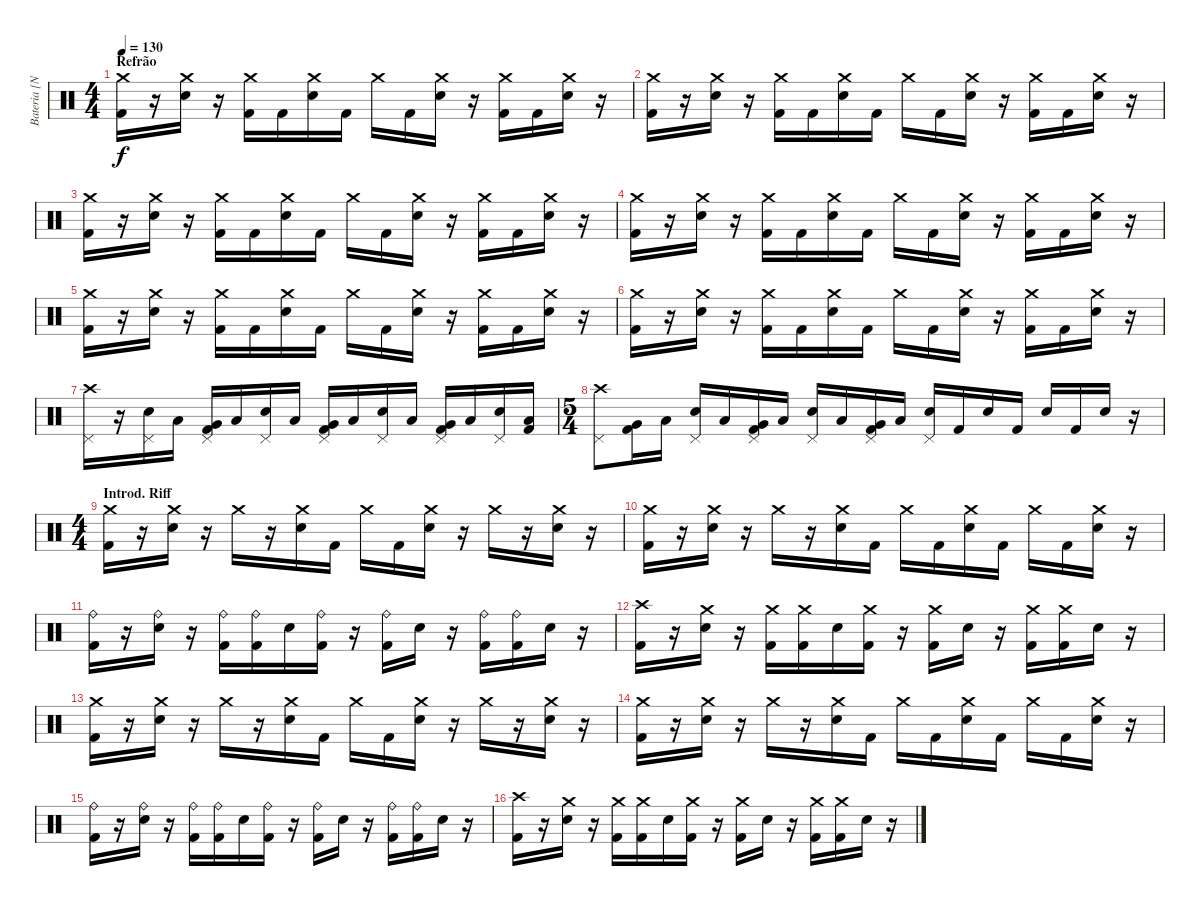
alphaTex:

\track ("Bateria [Nô]" "Bateria [N") {instrument percussion}
\staff {score}
\articulation defaults
\ts (4 4)
\section ("" "Refrão")
\tempo 130
\clef neutral
\ks c
("Crash medium (hit)" "Kick (hit) 2").16{dy f} r.16 ("Crash medium (hit)" "Snare (hit) 2").16 r.16 ("Crash medium (hit)" "Kick (hit) 2").16 "Kick (hit) 2".16 ("Crash medium (hit)" "Snare (hit) 2").16 "Kick (hit) 2".16 "Crash medium (hit)".16 "Kick (hit) 2".16 ("Crash medium (hit)" "Snare (hit) 2").16 r.16 ("Crash medium (hit)" "Kick (hit) 2").16 "Kick (hit) 2".16 ("Crash medium (hit)" "Snare (hit) 2").16 r.16 |
("Crash medium (hit)" "Kick (hit) 2").16 r.16 ("Crash medium (hit)" "Snare (hit) 2").16 r.16 ("Crash medium (hit)" "Kick (hit) 2").16 "Kick (hit) 2".16 ("Crash medium (hit)" "Snare (hit) 2").16 "Kick (hit) 2".16 "Crash medium (hit)".16 "Kick (hit) 2".16 ("Crash medium (hit)" "Snare (hit) 2").16 r.16 ("Crash medium (hit)" "Kick (hit) 2").16 "Kick (hit) 2".16 ("Crash medium (hit)" "Snare (hit) 2").16 r.16 |
("Crash medium (hit)" "Kick (hit) 2").16 r.16 ("Crash medium (hit)" "Snare (hit) 2").16 r.16 ("Crash medium (hit)" "Kick (hit) 2").16 "Kick (hit) 2".16 ("Crash medium (hit)" "Snare (hit) 2").16 "Kick (hit) 2".16 "Crash medium (hit)".16 "Kick (hit) 2".16 ("Crash medium (hit)" "Snare (hit) 2").16 r.16 ("Crash medium (hit)" "Kick (hit) 2").16 "Kick (hit) 2".16 ("Crash medium (hit)" "Snare (hit) 2").16 r.16 |
("Crash medium (hit)" "Kick (hit) 2").16 r.16 ("Crash medium (hit)" "Snare (hit) 2").16 r.16 ("Crash medium (hit)" "Kick (hit) 2").16 "Kick (hit) 2".16 ("Crash medium (hit)" "Snare (hit) 2").16 "Kick (hit) 2".16 "Crash medium (hit)".16 "Kick (hit) 2".16 ("Crash medium (hit)" "Snare (hit) 2").16 r.16 ("Crash medium (hit)" "Kick (hit) 2").16 "Kick (hit) 2".16 ("Crash medium (hit)" "Snare (hit) 2").16 r.16 |
("Crash medium (hit)" "Kick (hit) 2").16 r.16 ("Crash medium (hit)" "Snare (hit) 2").16 r.16 ("Crash medium (hit)" "Kick (hit) 2").16 "Kick (hit) 2".16 ("Crash medium (hit)" "Snare (hit) 2").16 "Kick (hit) 2".16 "Crash medium (hit)".16 "Kick (hit) 2".16 ("Crash medium (hit)" "Snare (hit) 2").16 r.16 ("Crash medium (hit)" "Kick (hit) 2").16 "Kick (hit) 2".16 ("Crash medium (hit)" "Snare (hit) 2").16 r.16 |
("Crash medium (hit)" "Kick (hit) 2").16 r.16 ("Crash medium (hit)" "Snare (hit) 2").16 r.16 ("Crash medium (hit)" "Kick (hit) 2").16 "Kick (hit) 2".16 ("Crash medium (hit)" "Snare (hit) 2").16 "Kick (hit) 2".16 "Crash medium (hit)".16 "Kick (hit) 2".16 ("Crash medium (hit)" "Snare (hit) 2").16 r.16 ("Crash medium (hit)" "Kick (hit) 2").16 "Kick (hit) 2".16 ("Crash medium (hit)" "Snare (hit) 2").16 r.16 |
("Crash high (hit)" "Pedal Hi-Hat (hit)").16 r.16 ("Pedal Hi-Hat (hit)" "Snare (hit) 2").16 "Low Floor Tom (hit)".16 ("Pedal Hi-Hat (hit)" "Very Low Tom (hit)" "Kick (hit) 2").16 "Low Floor Tom (hit)".16 ("Pedal Hi-Hat (hit)" "Snare (hit) 2").16 "Low Floor Tom (hit)".16 ("Pedal Hi-Hat (hit)" "Very Low Tom (hit)" "Kick (hit) 2").16 "Low Floor Tom (hit)".16 ("Pedal Hi-Hat (hit)" "Snare (hit) 2").16 "Low Floor Tom (hit)".16 ("Pedal Hi-Hat (hit)" "Very Low Tom (hit)" "Kick (hit) 2").16 "Low Floor Tom (hit)".16 ("Pedal Hi-Hat (hit)" "Snare (hit) 2").16 ("Low Floor Tom (hit)" "Kick (hit) 2").16 |
\ts (5 4)
("Crash high (hit)" "Pedal Hi-Hat (hit)").8 ("Very Low Tom (hit)" "Kick (hit) 2").16 "Low Floor Tom (hit)".16 ("Pedal Hi-Hat (hit)" "Snare (hit) 2").16 "Low Floor Tom (hit)".16 ("Pedal Hi-Hat (hit)" "Very Low Tom (hit)" "Kick (hit) 2").16 "Low Floor Tom (hit)".16 ("Pedal Hi-Hat (hit)" "Snare (hit) 2").16 "Low Floor Tom (hit)".16 ("Pedal Hi-Hat (hit)" "Very Low Tom (hit)" "Kick (hit) 2").16 "Low Floor Tom (hit)".16 ("Pedal Hi-Hat (hit)" "Snare (hit) 2").16 "Kick (hit) 2".16 "Snare (hit) 2".16 "Kick (hit) 2".16 "Snare (hit) 2".16 "Kick (hit) 2".16 "Snare (hit) 2".16 r.16 |
\ts (4 4)
\section ("" "Introd. Riff")
("Crash medium (hit)" "Kick (hit) 2").16 r.16 ("Crash medium (hit)" "Snare (hit) 2").16 r.16 "Crash medium (hit)".16 r.16 ("Crash medium (hit)" "Snare (hit) 2").16 "Kick (hit) 2".16 "Crash medium (hit)".16 "Kick (hit) 2".16 ("Crash medium (hit)" "Snare (hit) 2").16 r.16 "Crash medium (hit)".16 r.16 ("Crash medium (hit)" "Snare (hit) 2").16 r.16 |
("Crash medium (hit)" "Kick (hit) 2").16 r.16 ("Crash medium (hit)" "Snare (hit) 2").16 r.16 "Crash medium (hit)".16 r.16 ("Crash medium (hit)" "Snare (hit) 2").16 "Kick (hit) 2".16 "Crash medium (hit)".16 "Kick (hit) 2".16 ("Crash medium (hit)" "Snare (hit) 2").16 "Kick (hit) 2".16 "Crash medium (hit)".16 "Kick (hit) 2".16 ("Crash medium (hit)" "Snare (hit) 2").16 r.16 |
("Ride (bell)" "Kick (hit) 2").16 r.16 ("Ride (bell)" "Snare (hit) 2").16 r.16 ("Ride (bell)" "Kick (hit) 2").16 ("Ride (bell)" "Kick (hit) 2").16 "Snare (hit) 2".16 ("Ride (bell)" "Kick (hit) 2").16 r.16 ("Ride (bell)" "Kick (hit) 2").16 "Snare (hit) 2".16 r.16 ("Ride (bell)" "Kick (hit) 2").16 ("Ride (bell)" "Kick (hit) 2").16 "Snare (hit) 2".16 r.16 |
("Crash high (hit)" "Kick (hit) 2").16 r.16 ("Crash medium (hit)" "Snare (hit) 2").16 r.16 ("Crash medium (hit)" "Kick (hit) 2").16 ("Crash medium (hit)" "Kick (hit) 2").16 "Snare (hit) 2".16 ("Crash medium (hit)" "Kick (hit) 2").16 r.16 ("Crash medium (hit)" "Kick (hit) 2").16 "Snare (hit) 2".16 r.16 ("Crash medium (hit)" "Kick (hit) 2").16 ("Crash medium (hit)" "Kick (hit) 2").16 "Snare (hit) 2".16 r.16 |
("Crash medium (hit)" "Kick (hit) 2").16 r.16 ("Crash medium (hit)" "Snare (hit) 2").16 r.16 "Crash medium (hit)".16 r.16 ("Crash medium (hit)" "Snare (hit) 2").16 "Kick (hit) 2".16 "Crash medium (hit)".16 "Kick (hit) 2".16 ("Crash medium (hit)" "Snare (hit) 2").16 r.16 "Crash medium (hit)".16 r.16 ("Crash medium (hit)" "Snare (hit) 2").16 r.16 |
("Crash medium (hit)" "Kick (hit) 2").16 r.16 ("Crash medium (hit)" "Snare (hit) 2").16 r.16 "Crash medium (hit)".16 r.16 ("Crash medium (hit)" "Snare (hit) 2").16 "Kick (hit) 2".16 "Crash medium (hit)".16 "Kick (hit) 2".16 ("Crash medium (hit)" "Snare (hit) 2").16 "Kick (hit) 2".16 "Crash medium (hit)".16 "Kick (hit) 2".16 ("Crash medium (hit)" "Snare (hit) 2").16 r.16 |
("Ride (bell)" "Kick (hit) 2").16 r.16 ("Ride (bell)" "Snare (hit) 2").16 r.16 ("Ride (bell)" "Kick (hit) 2").16 ("Ride (bell)" "Kick (hit) 2").16 "Snare (hit) 2".16 ("Ride (bell)" "Kick (hit) 2").16 r.16 ("Ride (bell)" "Kick (hit) 2").16 "Snare (hit) 2".16 r.16 ("Ride (bell)" "Kick (hit) 2").16 ("Ride (bell)" "Kick (hit) 2").16 "Snare (hit) 2".16 r.16 |
("Crash high (hit)" "Kick (hit) 2").16 r.16 ("Crash medium (hit)" "Snare (hit) 2").16 r.16 ("Crash medium (hit)" "Kick (hit) 2").16 ("Crash medium (hit)" "Kick (hit) 2").16 "Snare (hit) 2".16 ("Crash medium (hit)" "Kick (hit) 2").16 r.16 ("Crash medium (hit)" "Kick (hit) 2").16 "Snare (hit) 2".16 r.16 ("Crash medium (hit)" "Kick (hit) 2").16 ("Crash medium (hit)" "Kick (hit) 2").16 "Snare (hit) 2".16 r.16
